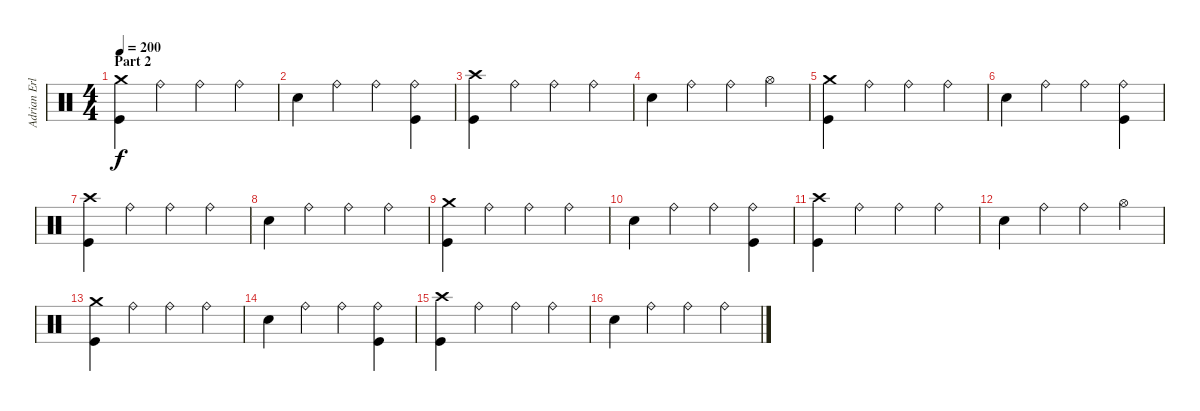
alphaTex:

\track ("Adrian Erlandsson" "Adrian Erl") {instrument percussion}
\staff {score}
\articulation defaults
\ts (4 4)
\section ("" "Part 2")
\tempo 200
\clef neutral
\ks c
("Crash medium (hit)" "Kick (hit)").4{dy f} "Ride (bell)".4 "Ride (bell)".4 "Ride (bell)".4 |
"Electric Snare (hit)".4 "Ride (bell)".4 "Ride (bell)".4 ("Ride (bell)" "Kick (hit)").4 |
("Crash high (hit)" "Kick (hit)").4 "Ride (bell)".4 "Ride (bell)".4 "Ride (bell)".4 |
"Electric Snare (hit)".4 "Ride (bell)".4 "Ride (bell)".4 "Hi-Hat (open)".4 |
("Crash medium (hit)" "Kick (hit)").4 "Ride (bell)".4 "Ride (bell)".4 "Ride (bell)".4 |
"Electric Snare (hit)".4 "Ride (bell)".4 "Ride (bell)".4 ("Ride (bell)" "Kick (hit)").4 |
("Crash high (hit)" "Kick (hit)").4 "Ride (bell)".4 "Ride (bell)".4 "Ride (bell)".4 |
"Electric Snare (hit)".4 "Ride (bell)".4 "Ride (bell)".4 "Ride (bell)".4 |
("Crash medium (hit)" "Kick (hit)").4 "Ride (bell)".4 "Ride (bell)".4 "Ride (bell)".4 |
"Electric Snare (hit)".4 "Ride (bell)".4 "Ride (bell)".4 ("Ride (bell)" "Kick (hit)").4 |
("Crash high (hit)" "Kick (hit)").4 "Ride (bell)".4 "Ride (bell)".4 "Ride (bell)".4 |
"Electric Snare (hit)".4 "Ride (bell)".4 "Ride (bell)".4 "Hi-Hat (open)".4 |
("Crash medium (hit)" "Kick (hit)").4 "Ride (bell)".4 "Ride (bell)".4 "Ride (bell)".4 |
"Electric Snare (hit)".4 "Ride (bell)".4 "Ride (bell)".4 ("Ride (bell)" "Kick (hit)").4 |
("Crash high (hit)" "Kick (hit)").4 "Ride (bell)".4 "Ride (bell)".4 "Ride (bell)".4 |
"Electric Snare (hit)".4 "Ride (bell)".4 "Ride (bell)".4 "Ride (bell)".4
